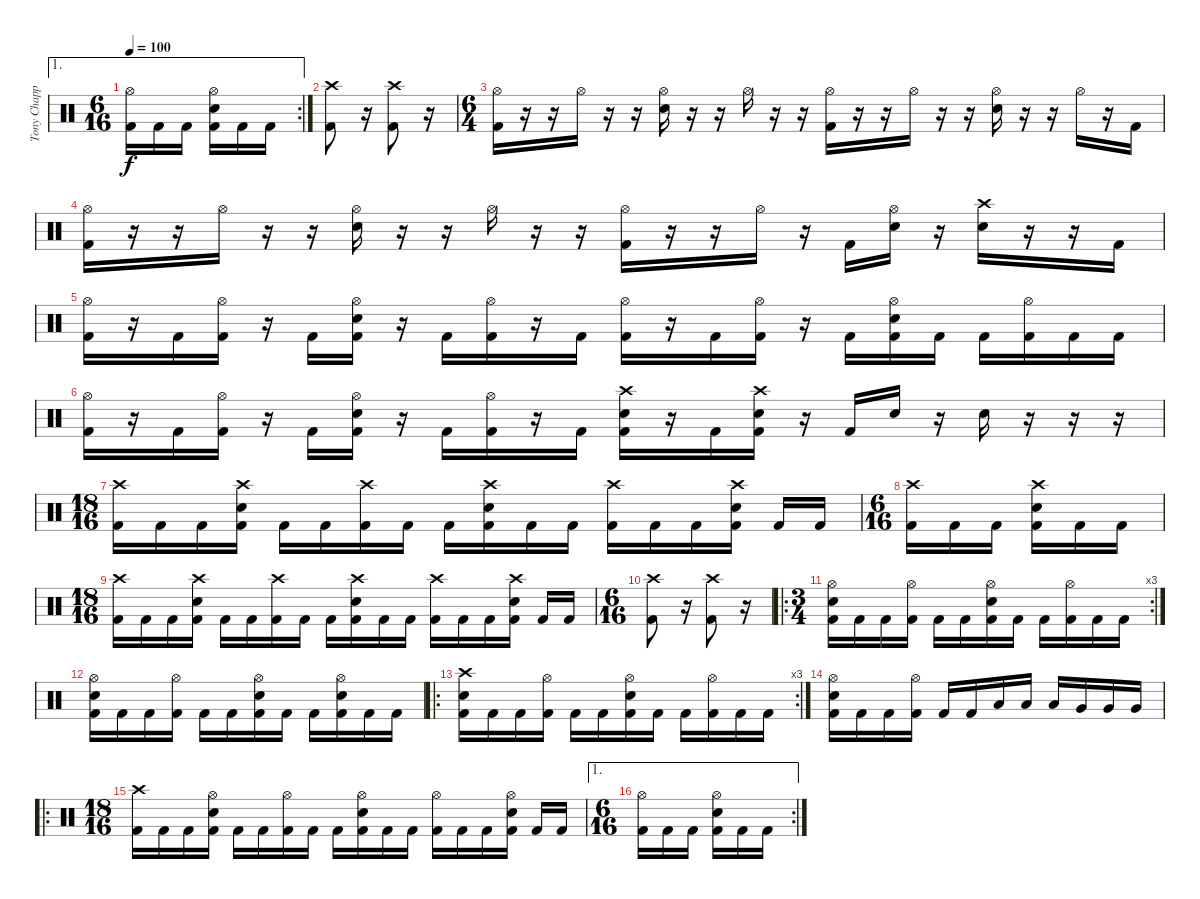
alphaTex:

\track ("Tony Chappelle: Drums" "Tony Chapp") {instrument percussion}
\staff {score}
\articulation defaults
\ae 1
\rc 2
\ts (6 16)
\tempo 100
\clef neutral
\ks c
("Hi-Hat (open)" "Kick (hit) 2").16{dy f} "Kick (hit) 2".16 "Kick (hit) 2".16 ("Electric Snare (hit)" "Hi-Hat (open)" "Kick (hit) 2").16 "Kick (hit) 2".16 "Kick (hit) 2".16 |
("Crash high (hit)" "Kick (hit) 2").8 r.16 ("Crash high (hit)" "Kick (hit) 2").8 r.16 |
\ts (6 4)
("Hi-Hat (open)" "Kick (hit) 2").16 r.16 r.16 "Hi-Hat (open)".16 r.16 r.16 ("Hi-Hat (open)" "Electric Snare (hit)").16 r.16 r.16 "Hi-Hat (open)".16 r.16 r.16 ("Hi-Hat (open)" "Kick (hit) 2").16 r.16 r.16 "Hi-Hat (open)".16 r.16 r.16 ("Hi-Hat (open)" "Electric Snare (hit)").16 r.16 r.16 "Hi-Hat (open)".16 r.16 "Kick (hit) 2".16 |
("Hi-Hat (open)" "Kick (hit) 2").16 r.16 r.16 "Hi-Hat (open)".16 r.16 r.16 ("Hi-Hat (open)" "Electric Snare (hit)").16 r.16 r.16 "Hi-Hat (open)".16 r.16 r.16 ("Hi-Hat (open)" "Kick (hit) 2").16 r.16 r.16 "Hi-Hat (open)".16 r.16 "Kick (hit) 2".16 ("Hi-Hat (open)" "Electric Snare (hit)").16 r.16 ("Crash high (hit)" "Electric Snare (hit)").16 r.16 r.16 "Kick (hit) 2".16 |
("Hi-Hat (open)" "Kick (hit) 2").16 r.16 "Kick (hit) 2".16 ("Hi-Hat (open)" "Kick (hit) 2").16 r.16 "Kick (hit) 2".16 ("Kick (hit) 2" "Hi-Hat (open)" "Electric Snare (hit)").16 r.16 "Kick (hit) 2".16 ("Hi-Hat (open)" "Kick (hit) 2").16 r.16 "Kick (hit) 2".16 ("Hi-Hat (open)" "Kick (hit) 2").16 r.16 "Kick (hit) 2".16 ("Hi-Hat (open)" "Kick (hit) 2").16 r.16 "Kick (hit) 2".16 ("Kick (hit) 2" "Hi-Hat (open)" "Electric Snare (hit)").16 "Kick (hit) 2".16 "Kick (hit) 2".16 ("Hi-Hat (open)" "Kick (hit) 2").16 "Kick (hit) 2".16 "Kick (hit) 2".16 |
("Hi-Hat (open)" "Kick (hit) 2").16 r.16 "Kick (hit) 2".16 ("Hi-Hat (open)" "Kick (hit) 2").16 r.16 "Kick (hit) 2".16 ("Kick (hit) 2" "Hi-Hat (open)" "Electric Snare (hit)").16 r.16 "Kick (hit) 2".16 ("Hi-Hat (open)" "Kick (hit) 2").16 r.16 "Kick (hit) 2".16 ("Crash high (hit)" "Electric Snare (hit)" "Kick (hit) 2").16 r.16 "Kick (hit) 2".16 ("Crash high (hit)" "Electric Snare (hit)" "Kick (hit) 2").16 r.16 "Kick (hit) 2".16 "Electric Snare (hit)".16 r.16 "Electric Snare (hit)".16 r.16 r.16 r.16 |
\ts (18 16)
("Crash high (hit)" "Kick (hit) 2").16 "Kick (hit) 2".16 "Kick (hit) 2".16 ("Electric Snare (hit)" "Crash high (hit)" "Kick (hit) 2").16 "Kick (hit) 2".16 "Kick (hit) 2".16 ("Crash high (hit)" "Kick (hit) 2").16 "Kick (hit) 2".16 "Kick (hit) 2".16 ("Electric Snare (hit)" "Crash high (hit)" "Kick (hit) 2").16 "Kick (hit) 2".16 "Kick (hit) 2".16 ("Crash high (hit)" "Kick (hit) 2").16 "Kick (hit) 2".16 "Kick (hit) 2".16 ("Electric Snare (hit)" "Crash high (hit)" "Kick (hit) 2").16 "Kick (hit) 2".16 "Kick (hit) 2".16 |
\ts (6 16)
("Crash high (hit)" "Kick (hit) 2").16 "Kick (hit) 2".16 "Kick (hit) 2".16 ("Electric Snare (hit)" "Crash high (hit)" "Kick (hit) 2").16 "Kick (hit) 2".16 "Kick (hit) 2".16 |
\ts (18 16)
("Crash high (hit)" "Kick (hit) 2").16 "Kick (hit) 2".16 "Kick (hit) 2".16 ("Electric Snare (hit)" "Crash high (hit)" "Kick (hit) 2").16 "Kick (hit) 2".16 "Kick (hit) 2".16 ("Crash high (hit)" "Kick (hit) 2").16 "Kick (hit) 2".16 "Kick (hit) 2".16 ("Electric Snare (hit)" "Crash high (hit)" "Kick (hit) 2").16 "Kick (hit) 2".16 "Kick (hit) 2".16 ("Crash high (hit)" "Kick (hit) 2").16 "Kick (hit) 2".16 "Kick (hit) 2".16 ("Electric Snare (hit)" "Crash high (hit)" "Kick (hit) 2").16 "Kick (hit) 2".16 "Kick (hit) 2".16 |
\ts (6 16)
("Crash high (hit)" "Kick (hit) 2").8 r.16 ("Crash high (hit)" "Kick (hit) 2").8 r.16 |
\ro
\rc 3
\ts (3 4)
("Hi-Hat (open)" "Electric Snare (hit)" "Kick (hit) 2").16 "Kick (hit) 2".16 "Kick (hit) 2".16 ("Hi-Hat (open)" "Kick (hit) 2").16 "Kick (hit) 2".16 "Kick (hit) 2".16 ("Hi-Hat (open)" "Electric Snare (hit)" "Kick (hit) 2").16 "Kick (hit) 2".16 "Kick (hit) 2".16 ("Hi-Hat (open)" "Kick (hit) 2").16 "Kick (hit) 2".16 "Kick (hit) 2".16 |
("Hi-Hat (open)" "Electric Snare (hit)" "Kick (hit) 2").16 "Kick (hit) 2".16 "Kick (hit) 2".16 ("Hi-Hat (open)" "Kick (hit) 2").16 "Kick (hit) 2".16 "Kick (hit) 2".16 ("Hi-Hat (open)" "Electric Snare (hit)" "Kick (hit) 2").16 "Kick (hit) 2".16 "Kick (hit) 2".16 ("Hi-Hat (open)" "Electric Snare (hit)" "Kick (hit) 2").16 "Kick (hit) 2".16 "Kick (hit) 2".16 |
\ro
\rc 3
("Crash high (hit)" "Electric Snare (hit)" "Kick (hit) 2").16 "Kick (hit) 2".16 "Kick (hit) 2".16 ("Hi-Hat (open)" "Kick (hit) 2").16 "Kick (hit) 2".16 "Kick (hit) 2".16 ("Hi-Hat (open)" "Electric Snare (hit)" "Kick (hit) 2").16 "Kick (hit) 2".16 "Kick (hit) 2".16 ("Hi-Hat (open)" "Kick (hit) 2").16 "Kick (hit) 2".16 "Kick (hit) 2".16 |
("Hi-Hat (open)" "Electric Snare (hit)" "Kick (hit) 2").16 "Kick (hit) 2".16 "Kick (hit) 2".16 ("Hi-Hat (open)" "Kick (hit) 2").16 "Kick (hit) 2".16 "Kick (hit) 2".16 "Low Tom (hit)".16 "Low Tom (hit)".16 "Low Tom (hit)".16 "Very Low Tom (hit)".16 "Very Low Tom (hit)".16 "Very Low Tom (hit)".16 |
\ro
\ts (18 16)
("Crash high (hit)" "Kick (hit) 2").16 "Kick (hit) 2".16 "Kick (hit) 2".16 ("Electric Snare (hit)" "Hi-Hat (open)" "Kick (hit) 2").16 "Kick (hit) 2".16 "Kick (hit) 2".16 ("Hi-Hat (open)" "Kick (hit) 2").16 "Kick (hit) 2".16 "Kick (hit) 2".16 ("Electric Snare (hit)" "Hi-Hat (open)" "Kick (hit) 2").16 "Kick (hit) 2".16 "Kick (hit) 2".16 ("Hi-Hat (open)" "Kick (hit) 2").16 "Kick (hit) 2".16 "Kick (hit) 2".16 ("Electric Snare (hit)" "Hi-Hat (open)" "Kick (hit) 2").16 "Kick (hit) 2".16 "Kick (hit) 2".16 |
\ae 1
\rc 2
\ts (6 16)
("Hi-Hat (open)" "Kick (hit) 2").16 "Kick (hit) 2".16 "Kick (hit) 2".16 ("Electric Snare (hit)" "Hi-Hat (open)" "Kick (hit) 2").16 "Kick (hit) 2".16 "Kick (hit) 2".16
